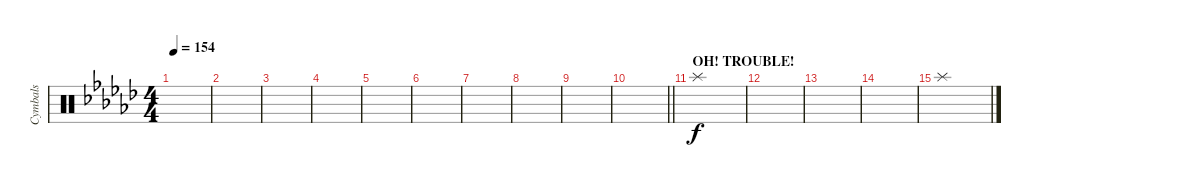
\track ("Cymbals" "Cymbals") {instrument percussion}
\staff {score}
\articulation defaults
\ts (4 4)
\tempo 154
\clef neutral
\ks gb
|
|
|
|
|
|
|
|
|
\barLineRight lightlight
|
\section ("" "OH! TROUBLE!")
"Splash (hit)".1 |
|
|
|
"Splash (hit)".1
